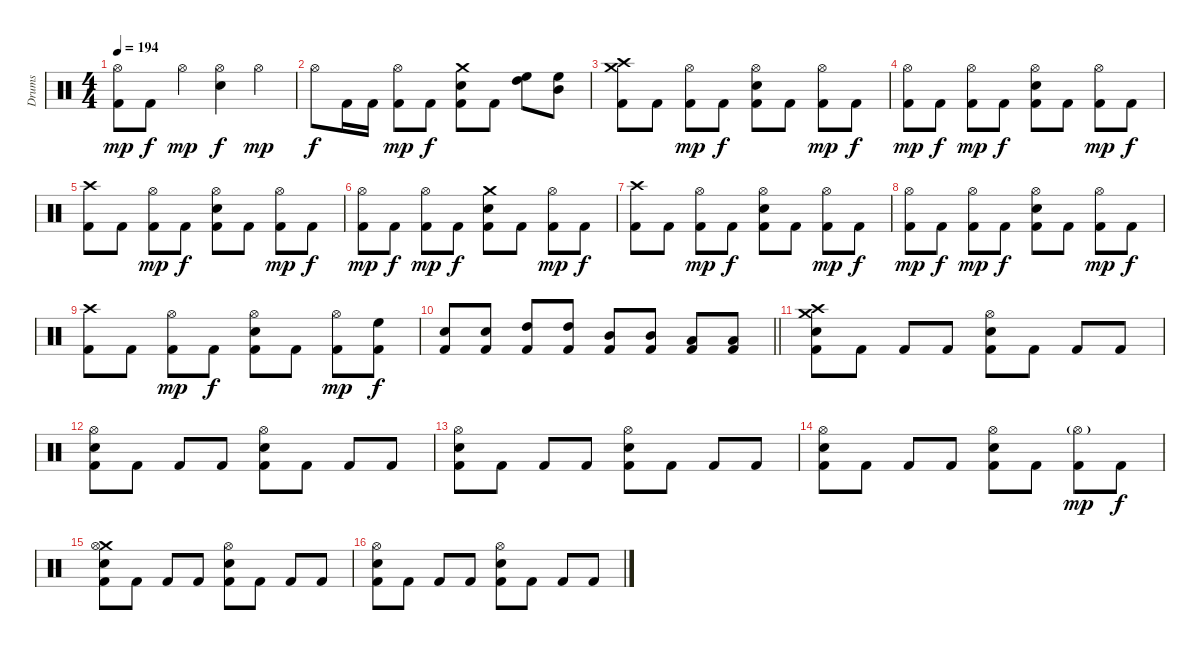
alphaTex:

\track ("Drums" "Drums") {instrument percussion}
\staff {score}
\articulation defaults
\ts (4 4)
\tempo 194
\clef neutral
\ks c
("Hi-Hat (open)" "Kick (hit) 2").8{dy mp} "Kick (hit) 2".8{dy f} "Hi-Hat (open)".4{dy mp} ("Hi-Hat (open)" "Electric Snare (hit)").4{dy f} "Hi-Hat (open)".4{dy mp} |
"Hi-Hat (open)".8{dy f} "Kick (hit) 2".16 "Kick (hit) 2".16 ("Hi-Hat (open)" "Kick (hit) 2").8{dy mp} "Kick (hit) 2".8{dy f} ("Crash medium (hit)" "Electric Snare (hit)" "Kick (hit) 2").8 "Kick (hit) 2".8 ("High Floor Tom (hit)" "High Tom (hit)").8 ("High Floor Tom (hit)" "Mid Tom (hit)").8 |
("Crash high (hit)" "Crash medium (hit)" "Kick (hit) 2").8 "Kick (hit) 2".8 ("Hi-Hat (open)" "Kick (hit) 2").8{dy mp} "Kick (hit) 2".8{dy f} ("Hi-Hat (open)" "Electric Snare (hit)" "Kick (hit) 2").8 "Kick (hit) 2".8 ("Hi-Hat (open)" "Kick (hit) 2").8{dy mp} "Kick (hit) 2".8{dy f} |
("Hi-Hat (open)" "Kick (hit) 2").8{dy mp} "Kick (hit) 2".8{dy f} ("Hi-Hat (open)" "Kick (hit) 2").8{dy mp} "Kick (hit) 2".8{dy f} ("Hi-Hat (open)" "Electric Snare (hit)" "Kick (hit) 2").8 "Kick (hit) 2".8 ("Hi-Hat (open)" "Kick (hit) 2").8{dy mp} "Kick (hit) 2".8{dy f} |
("Crash high (hit)" "Kick (hit) 2").8 "Kick (hit) 2".8 ("Hi-Hat (open)" "Kick (hit) 2").8{dy mp} "Kick (hit) 2".8{dy f} ("Hi-Hat (open)" "Electric Snare (hit)" "Kick (hit) 2").8 "Kick (hit) 2".8 ("Hi-Hat (open)" "Kick (hit) 2").8{dy mp} "Kick (hit) 2".8{dy f} |
("Hi-Hat (open)" "Kick (hit) 2").8{dy mp} "Kick (hit) 2".8{dy f} ("Hi-Hat (open)" "Kick (hit) 2").8{dy mp} "Kick (hit) 2".8{dy f} ("Crash medium (hit)" "Electric Snare (hit)" "Kick (hit) 2").8 "Kick (hit) 2".8 ("Hi-Hat (open)" "Kick (hit) 2").8{dy mp} "Kick (hit) 2".8{dy f} |
("Crash high (hit)" "Kick (hit) 2").8 "Kick (hit) 2".8 ("Hi-Hat (open)" "Kick (hit) 2").8{dy mp} "Kick (hit) 2".8{dy f} ("Hi-Hat (open)" "Electric Snare (hit)" "Kick (hit) 2").8 "Kick (hit) 2".8 ("Hi-Hat (open)" "Kick (hit) 2").8{dy mp} "Kick (hit) 2".8{dy f} |
("Hi-Hat (open)" "Kick (hit) 2").8{dy mp} "Kick (hit) 2".8{dy f} ("Hi-Hat (open)" "Kick (hit) 2").8{dy mp} "Kick (hit) 2".8{dy f} ("Hi-Hat (open)" "Electric Snare (hit)" "Kick (hit) 2").8 "Kick (hit) 2".8 ("Hi-Hat (open)" "Kick (hit) 2").8{dy mp} "Kick (hit) 2".8{dy f} |
("Crash high (hit)" "Kick (hit) 2").8 "Kick (hit) 2".8 ("Hi-Hat (open)" "Kick (hit) 2").8{dy mp} "Kick (hit) 2".8{dy f} ("Hi-Hat (open)" "Electric Snare (hit)" "Kick (hit) 2").8 "Kick (hit) 2".8 ("Hi-Hat (open)" "Kick (hit) 2").8{dy mp} ("High Floor Tom (hit)" "Kick (hit) 2").8{dy f} |
\barLineRight lightlight
("Electric Snare (hit)" "Kick (hit) 2").8 ("Electric Snare (hit)" "Kick (hit) 2").8 ("High Tom (hit)" "Kick (hit) 2").8 ("High Tom (hit)" "Kick (hit) 2").8 ("Mid Tom (hit)" "Kick (hit) 2").8 ("Mid Tom (hit)" "Kick (hit) 2").8 ("Low Tom (hit)" "Kick (hit) 2").8 ("Low Tom (hit)" "Kick (hit) 2").8 |
("Crash high (hit)" "Crash medium (hit)" "Electric Snare (hit)" "Kick (hit) 2").8 "Kick (hit) 2".8 "Kick (hit) 2".8 "Kick (hit) 2".8 ("Hi-Hat (open)" "Electric Snare (hit)" "Kick (hit) 2").8 "Kick (hit) 2".8 "Kick (hit) 2".8 "Kick (hit) 2".8 |
("Hi-Hat (open)" "Electric Snare (hit)" "Kick (hit) 2").8 "Kick (hit) 2".8 "Kick (hit) 2".8 "Kick (hit) 2".8 ("Hi-Hat (open)" "Electric Snare (hit)" "Kick (hit) 2").8 "Kick (hit) 2".8 "Kick (hit) 2".8 "Kick (hit) 2".8 |
("Hi-Hat (open)" "Electric Snare (hit)" "Kick (hit) 2").8 "Kick (hit) 2".8 "Kick (hit) 2".8 "Kick (hit) 2".8 ("Hi-Hat (open)" "Electric Snare (hit)" "Kick (hit) 2").8 "Kick (hit) 2".8 "Kick (hit) 2".8 "Kick (hit) 2".8 |
("Hi-Hat (open)" "Electric Snare (hit)" "Kick (hit) 2").8 "Kick (hit) 2".8 "Kick (hit) 2".8 "Kick (hit) 2".8 ("Hi-Hat (open)" "Electric Snare (hit)" "Kick (hit) 2").8 "Kick (hit) 2".8 ("Hi-Hat (open)"{g} "Kick (hit) 2").8{dy mp} "Kick (hit) 2".8{dy f} |
("Crash medium (hit)" "Hi-Hat (open)" "Electric Snare (hit)" "Kick (hit) 2").8 "Kick (hit) 2".8 "Kick (hit) 2".8 "Kick (hit) 2".8 ("Hi-Hat (open)" "Electric Snare (hit)" "Kick (hit) 2").8 "Kick (hit) 2".8 "Kick (hit) 2".8 "Kick (hit) 2".8 |
("Hi-Hat (open)" "Electric Snare (hit)" "Kick (hit) 2").8 "Kick (hit) 2".8 "Kick (hit) 2".8 "Kick (hit) 2".8 ("Hi-Hat (open)" "Electric Snare (hit)" "Kick (hit) 2").8 "Kick (hit) 2".8 "Kick (hit) 2".8 "Kick (hit) 2".8
